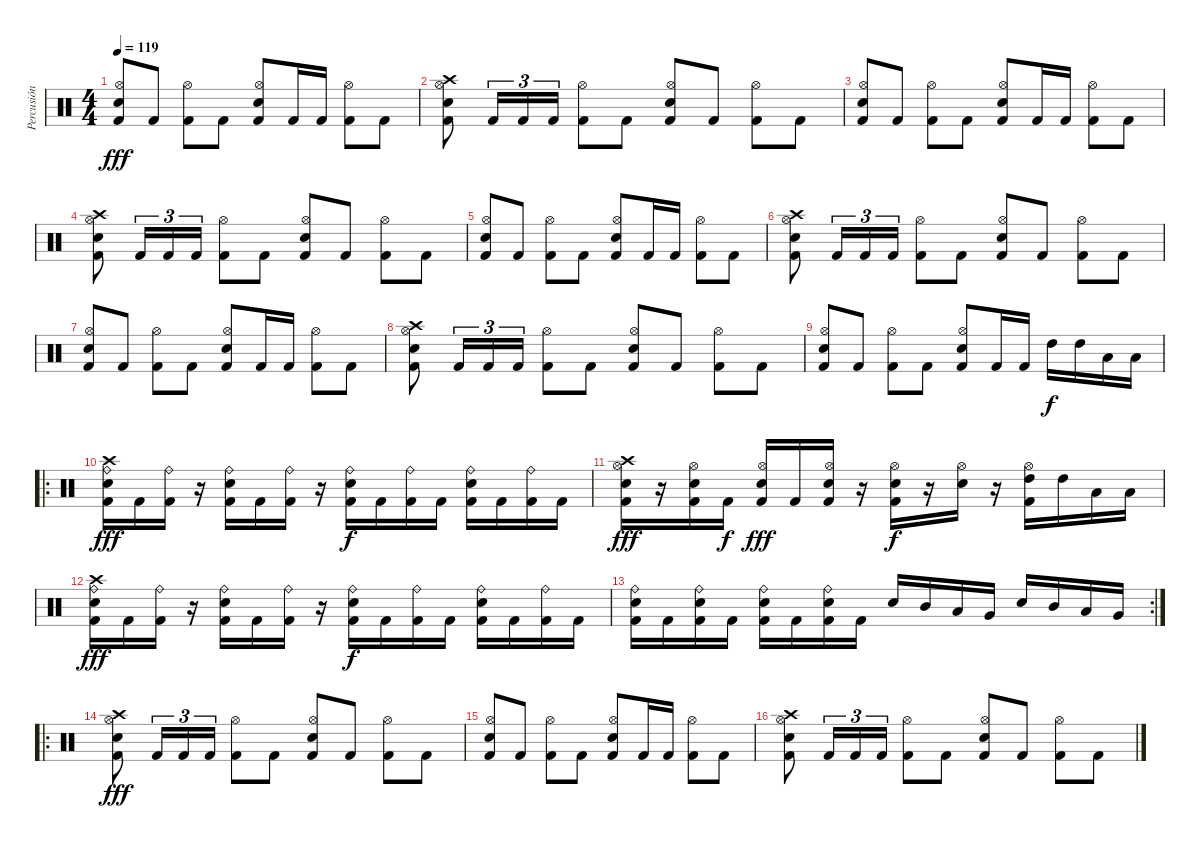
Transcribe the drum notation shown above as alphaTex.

\track ("Percusión" "Percusión") {instrument percussion}
\staff {score}
\articulation defaults
\ts (4 4)
\tempo 119
\clef neutral
\ks c
("Electric Snare (hit)" "Hi-Hat (open)" "Kick (hit) 2").8{dy fff} "Kick (hit) 2".8 ("Hi-Hat (open)" "Kick (hit) 2").8 "Kick (hit) 2".8 ("Electric Snare (hit)" "Hi-Hat (open)" "Kick (hit) 2").8 "Kick (hit) 2".16 "Kick (hit) 2".16 ("Hi-Hat (open)" "Kick (hit) 2").8 "Kick (hit) 2".8 |
("Crash high (hit)" "Electric Snare (hit)" "Hi-Hat (open)" "Kick (hit) 2").8 "Kick (hit) 2".16{tu (3 2)} "Kick (hit) 2".16{tu (3 2)} "Kick (hit) 2".16{tu (3 2)} ("Hi-Hat (open)" "Kick (hit) 2").8 "Kick (hit) 2".8 ("Electric Snare (hit)" "Hi-Hat (open)" "Kick (hit) 2").8 "Kick (hit) 2".8 ("Hi-Hat (open)" "Kick (hit) 2").8 "Kick (hit) 2".8 |
("Electric Snare (hit)" "Hi-Hat (open)" "Kick (hit) 2").8 "Kick (hit) 2".8 ("Hi-Hat (open)" "Kick (hit) 2").8 "Kick (hit) 2".8 ("Electric Snare (hit)" "Hi-Hat (open)" "Kick (hit) 2").8 "Kick (hit) 2".16 "Kick (hit) 2".16 ("Hi-Hat (open)" "Kick (hit) 2").8 "Kick (hit) 2".8 |
("Crash high (hit)" "Electric Snare (hit)" "Hi-Hat (open)" "Kick (hit) 2").8 "Kick (hit) 2".16{tu (3 2)} "Kick (hit) 2".16{tu (3 2)} "Kick (hit) 2".16{tu (3 2)} ("Hi-Hat (open)" "Kick (hit) 2").8 "Kick (hit) 2".8 ("Electric Snare (hit)" "Hi-Hat (open)" "Kick (hit) 2").8 "Kick (hit) 2".8 ("Hi-Hat (open)" "Kick (hit) 2").8 "Kick (hit) 2".8 |
("Electric Snare (hit)" "Hi-Hat (open)" "Kick (hit) 2").8 "Kick (hit) 2".8 ("Hi-Hat (open)" "Kick (hit) 2").8 "Kick (hit) 2".8 ("Electric Snare (hit)" "Hi-Hat (open)" "Kick (hit) 2").8 "Kick (hit) 2".16 "Kick (hit) 2".16 ("Hi-Hat (open)" "Kick (hit) 2").8 "Kick (hit) 2".8 |
("Crash high (hit)" "Electric Snare (hit)" "Hi-Hat (open)" "Kick (hit) 2").8 "Kick (hit) 2".16{tu (3 2)} "Kick (hit) 2".16{tu (3 2)} "Kick (hit) 2".16{tu (3 2)} ("Hi-Hat (open)" "Kick (hit) 2").8 "Kick (hit) 2".8 ("Electric Snare (hit)" "Hi-Hat (open)" "Kick (hit) 2").8 "Kick (hit) 2".8 ("Hi-Hat (open)" "Kick (hit) 2").8 "Kick (hit) 2".8 |
("Electric Snare (hit)" "Hi-Hat (open)" "Kick (hit) 2").8 "Kick (hit) 2".8 ("Hi-Hat (open)" "Kick (hit) 2").8 "Kick (hit) 2".8 ("Electric Snare (hit)" "Hi-Hat (open)" "Kick (hit) 2").8 "Kick (hit) 2".16 "Kick (hit) 2".16 ("Hi-Hat (open)" "Kick (hit) 2").8 "Kick (hit) 2".8 |
("Crash high (hit)" "Electric Snare (hit)" "Hi-Hat (open)" "Kick (hit) 2").8 "Kick (hit) 2".16{tu (3 2)} "Kick (hit) 2".16{tu (3 2)} "Kick (hit) 2".16{tu (3 2)} ("Hi-Hat (open)" "Kick (hit) 2").8 "Kick (hit) 2".8 ("Electric Snare (hit)" "Hi-Hat (open)" "Kick (hit) 2").8 "Kick (hit) 2".8 ("Hi-Hat (open)" "Kick (hit) 2").8 "Kick (hit) 2".8 |
("Electric Snare (hit)" "Hi-Hat (open)" "Kick (hit) 2").8 "Kick (hit) 2".8 ("Hi-Hat (open)" "Kick (hit) 2").8 "Kick (hit) 2".8 ("Electric Snare (hit)" "Hi-Hat (open)" "Kick (hit) 2").8 "Kick (hit) 2".16 "Kick (hit) 2".16 "High Tom (hit)".16{dy f} "High Tom (hit)".16 "Low Tom (hit)".16 "Low Tom (hit)".16 |
\ro
("Crash high (hit)" "Electric Snare (hit)" "Ride (bell)" "Kick (hit) 2").16{dy fff} "Kick (hit) 2".16 ("Ride (bell)" "Kick (hit) 2").16 r.16 ("Electric Snare (hit)" "Ride (bell)" "Kick (hit) 2").16 "Kick (hit) 2".16 ("Ride (bell)" "Kick (hit) 2").16 r.16 ("Electric Snare (hit)" "Ride (bell)" "Kick (hit) 2").16{dy f} "Kick (hit) 2".16 ("Ride (bell)" "Kick (hit) 2").16 "Kick (hit) 2".16 ("Electric Snare (hit)" "Ride (bell)" "Kick (hit) 2").16 "Kick (hit) 2".16 ("Ride (bell)" "Kick (hit) 2").16 "Kick (hit) 2".16 |
("Crash high (hit)" "Electric Snare (hit)" "Hi-Hat (open)" "Kick (hit) 2").16{dy fff} r.16 ("Electric Snare (hit)" "Hi-Hat (open)" "Kick (hit) 2").16 "Kick (hit) 2".16{dy f} ("Electric Snare (hit)" "Hi-Hat (open)" "Kick (hit) 2").16{dy fff} "Kick (hit) 2".16 ("Electric Snare (hit)" "Hi-Hat (open)" "Kick (hit) 2").16 r.16 ("Electric Snare (hit)" "Hi-Hat (open)" "Kick (hit) 2").16{dy f} r.16 ("Electric Snare (hit)" "Hi-Hat (open)").16 r.16 ("High Tom (hit)" "Hi-Hat (open)" "Kick (hit) 2").16 "High Tom (hit)".16 "Low Tom (hit)".16 "Low Tom (hit)".16 |
("Crash high (hit)" "Electric Snare (hit)" "Ride (bell)" "Kick (hit) 2").16{dy fff} "Kick (hit) 2".16 ("Ride (bell)" "Kick (hit) 2").16 r.16 ("Electric Snare (hit)" "Ride (bell)" "Kick (hit) 2").16 "Kick (hit) 2".16 ("Ride (bell)" "Kick (hit) 2").16 r.16 ("Electric Snare (hit)" "Ride (bell)" "Kick (hit) 2").16{dy f} "Kick (hit) 2".16 ("Ride (bell)" "Kick (hit) 2").16 "Kick (hit) 2".16 ("Electric Snare (hit)" "Ride (bell)" "Kick (hit) 2").16 "Kick (hit) 2".16 ("Ride (bell)" "Kick (hit) 2").16 "Kick (hit) 2".16 |
\rc 2
("Electric Snare (hit)" "Ride (bell)" "Kick (hit) 2").16 "Kick (hit) 2".16 ("Electric Snare (hit)" "Ride (bell)" "Kick (hit) 2").16 "Kick (hit) 2".16 ("Electric Snare (hit)" "Ride (bell)" "Kick (hit) 2").16 "Kick (hit) 2".16 ("Electric Snare (hit)" "Ride (bell)" "Kick (hit) 2").16 "Kick (hit) 2".16 "Electric Snare (hit)".16 "Mid Tom (hit)".16 "Low Tom (hit)".16 "Very Low Tom (hit)".16 "Electric Snare (hit)".16 "Mid Tom (hit)".16 "Low Tom (hit)".16 "Very Low Tom (hit)".16 |
\ro
("Crash high (hit)" "Electric Snare (hit)" "Hi-Hat (open)" "Kick (hit) 2").8{dy fff} "Kick (hit) 2".16{tu (3 2)} "Kick (hit) 2".16{tu (3 2)} "Kick (hit) 2".16{tu (3 2)} ("Hi-Hat (open)" "Kick (hit) 2").8 "Kick (hit) 2".8 ("Electric Snare (hit)" "Hi-Hat (open)" "Kick (hit) 2").8 "Kick (hit) 2".8 ("Hi-Hat (open)" "Kick (hit) 2").8 "Kick (hit) 2".8 |
("Electric Snare (hit)" "Hi-Hat (open)" "Kick (hit) 2").8 "Kick (hit) 2".8 ("Hi-Hat (open)" "Kick (hit) 2").8 "Kick (hit) 2".8 ("Electric Snare (hit)" "Hi-Hat (open)" "Kick (hit) 2").8 "Kick (hit) 2".16 "Kick (hit) 2".16 ("Hi-Hat (open)" "Kick (hit) 2").8 "Kick (hit) 2".8 |
("Crash high (hit)" "Electric Snare (hit)" "Hi-Hat (open)" "Kick (hit) 2").8 "Kick (hit) 2".16{tu (3 2)} "Kick (hit) 2".16{tu (3 2)} "Kick (hit) 2".16{tu (3 2)} ("Hi-Hat (open)" "Kick (hit) 2").8 "Kick (hit) 2".8 ("Electric Snare (hit)" "Hi-Hat (open)" "Kick (hit) 2").8 "Kick (hit) 2".8 ("Hi-Hat (open)" "Kick (hit) 2").8 "Kick (hit) 2".8
